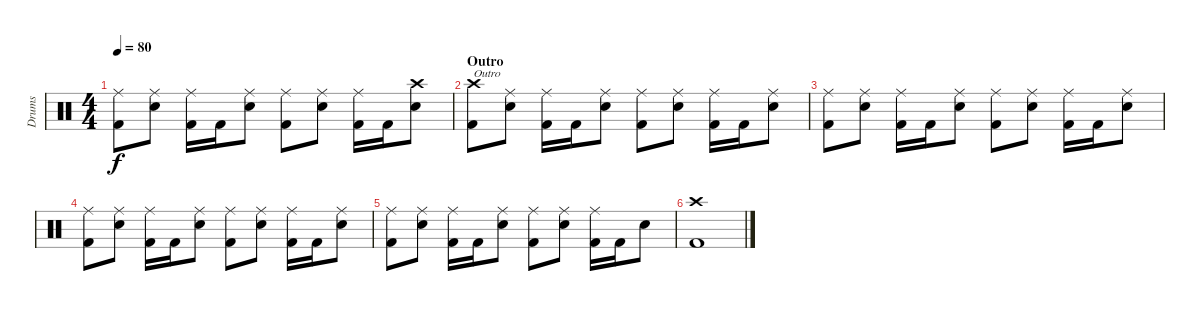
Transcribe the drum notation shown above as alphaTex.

\track ("Drums" "Drums") {instrument percussion}
\staff {score}
\articulation defaults
\ts (4 4)
\tempo 80
\clef neutral
\ks c
("Ride (middle)" "Kick (hit) 2").8{dy f} ("Ride (middle)" "Electric Snare (hit)").8 ("Ride (middle)" "Kick (hit) 2").16 "Kick (hit) 2".16 ("Ride (middle)" "Electric Snare (hit)").8 ("Ride (middle)" "Kick (hit) 2").8 ("Ride (middle)" "Electric Snare (hit)").8 ("Ride (middle)" "Kick (hit) 2").16 "Kick (hit) 2".16 ("Crash high (hit)" "Electric Snare (hit)").8 |
\section ("" "Outro")
("Crash high (hit)" "Kick (hit) 2").8{txt "Outro"} ("Ride (middle)" "Electric Snare (hit)").8 ("Ride (middle)" "Kick (hit) 2").16 "Kick (hit) 2".16 ("Ride (middle)" "Electric Snare (hit)").8 ("Ride (middle)" "Kick (hit) 2").8 ("Ride (middle)" "Electric Snare (hit)").8 ("Ride (middle)" "Kick (hit) 2").16 "Kick (hit) 2".16 ("Ride (middle)" "Electric Snare (hit)").8 |
("Ride (middle)" "Kick (hit) 2").8 ("Ride (middle)" "Electric Snare (hit)").8 ("Ride (middle)" "Kick (hit) 2").16 "Kick (hit) 2".16 ("Ride (middle)" "Electric Snare (hit)").8 ("Ride (middle)" "Kick (hit) 2").8 ("Ride (middle)" "Electric Snare (hit)").8 ("Ride (middle)" "Kick (hit) 2").16 "Kick (hit) 2".16 ("Ride (middle)" "Electric Snare (hit)").8 |
("Ride (middle)" "Kick (hit) 2").8 ("Ride (middle)" "Electric Snare (hit)").8 ("Ride (middle)" "Kick (hit) 2").16 "Kick (hit) 2".16 ("Ride (middle)" "Electric Snare (hit)").8 ("Ride (middle)" "Kick (hit) 2").8 ("Ride (middle)" "Electric Snare (hit)").8 ("Ride (middle)" "Kick (hit) 2").16 "Kick (hit) 2".16 ("Ride (middle)" "Electric Snare (hit)").8 |
("Ride (middle)" "Kick (hit) 2").8 ("Ride (middle)" "Electric Snare (hit)").8 ("Ride (middle)" "Kick (hit) 2").16 "Kick (hit) 2".16 ("Ride (middle)" "Electric Snare (hit)").8 ("Ride (middle)" "Kick (hit) 2").8 ("Ride (middle)" "Electric Snare (hit)").8 ("Ride (middle)" "Kick (hit) 2").16 "Kick (hit) 2".16 "Electric Snare (hit)".8 |
("Crash high (hit)" "Kick (hit) 2").1
